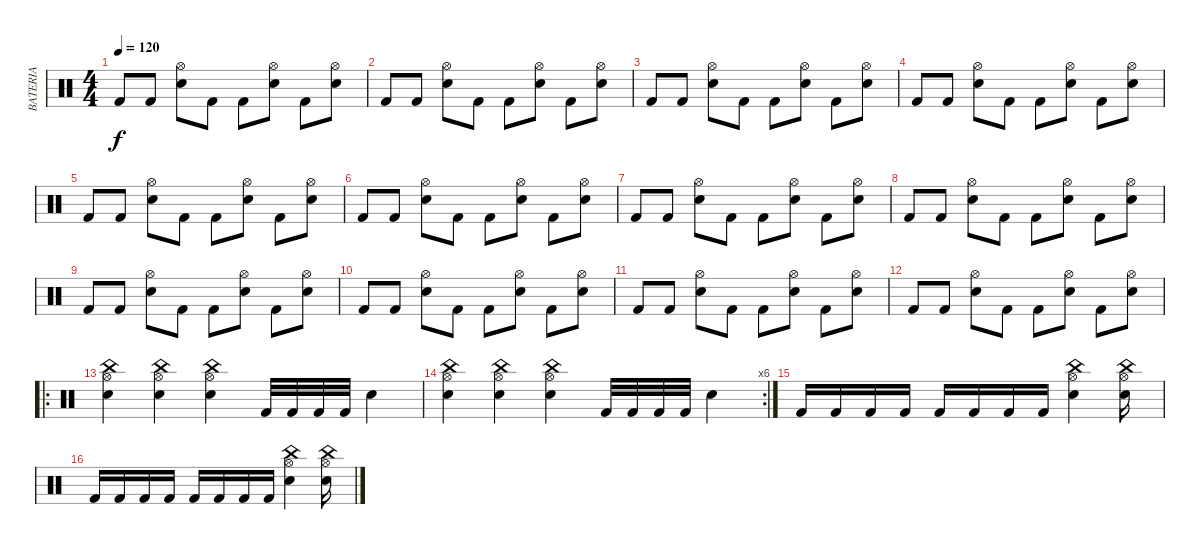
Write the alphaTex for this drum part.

\track ("BATERIA" "BATERIA") {instrument percussion}
\staff {score}
\articulation defaults
\ts (4 4)
\tempo 120
\clef neutral
\ks c "Kick (hit) 2".8{dy f} "Kick (hit) 2".8
("Snare (hit) 2" "Hi-Hat (open)").8 "Kick (hit) 2".8 "Kick (hit) 2".8 ("Snare (hit) 2" "Hi-Hat (open)").8 "Kick (hit) 2".8 ("Snare (hit) 2" "Hi-Hat (open)").8 |
"Kick (hit) 2".8 "Kick (hit) 2".8 ("Snare (hit) 2" "Hi-Hat (open)").8 "Kick (hit) 2".8 "Kick (hit) 2".8 ("Snare (hit) 2" "Hi-Hat (open)").8 "Kick (hit) 2".8 ("Snare (hit) 2" "Hi-Hat (open)").8 |
"Kick (hit) 2".8 "Kick (hit) 2".8 ("Snare (hit) 2" "Hi-Hat (open)").8 "Kick (hit) 2".8 "Kick (hit) 2".8 ("Snare (hit) 2" "Hi-Hat (open)").8 "Kick (hit) 2".8 ("Snare (hit) 2" "Hi-Hat (open)").8 |
"Kick (hit) 2".8 "Kick (hit) 2".8 ("Snare (hit) 2" "Hi-Hat (open)").8 "Kick (hit) 2".8 "Kick (hit) 2".8 ("Snare (hit) 2" "Hi-Hat (open)").8 "Kick (hit) 2".8 ("Snare (hit) 2" "Hi-Hat (open)").8 |
"Kick (hit) 2".8 "Kick (hit) 2".8 ("Snare (hit) 2" "Hi-Hat (open)").8 "Kick (hit) 2".8 "Kick (hit) 2".8 ("Snare (hit) 2" "Hi-Hat (open)").8 "Kick (hit) 2".8 ("Snare (hit) 2" "Hi-Hat (open)").8 |
"Kick (hit) 2".8 "Kick (hit) 2".8 ("Snare (hit) 2" "Hi-Hat (open)").8 "Kick (hit) 2".8 "Kick (hit) 2".8 ("Snare (hit) 2" "Hi-Hat (open)").8 "Kick (hit) 2".8 ("Snare (hit) 2" "Hi-Hat (open)").8 |
"Kick (hit) 2".8 "Kick (hit) 2".8 ("Snare (hit) 2" "Hi-Hat (open)").8 "Kick (hit) 2".8 "Kick (hit) 2".8 ("Snare (hit) 2" "Hi-Hat (open)").8 "Kick (hit) 2".8 ("Snare (hit) 2" "Hi-Hat (open)").8 |
"Kick (hit) 2".8 "Kick (hit) 2".8 ("Snare (hit) 2" "Hi-Hat (open)").8 "Kick (hit) 2".8 "Kick (hit) 2".8 ("Snare (hit) 2" "Hi-Hat (open)").8 "Kick (hit) 2".8 ("Snare (hit) 2" "Hi-Hat (open)").8 |
"Kick (hit) 2".8 "Kick (hit) 2".8 ("Snare (hit) 2" "Hi-Hat (open)").8 "Kick (hit) 2".8 "Kick (hit) 2".8 ("Snare (hit) 2" "Hi-Hat (open)").8 "Kick (hit) 2".8 ("Snare (hit) 2" "Hi-Hat (open)").8 |
"Kick (hit) 2".8 "Kick (hit) 2".8 ("Snare (hit) 2" "Hi-Hat (open)").8 "Kick (hit) 2".8 "Kick (hit) 2".8 ("Snare (hit) 2" "Hi-Hat (open)").8 "Kick (hit) 2".8 ("Snare (hit) 2" "Hi-Hat (open)").8 |
"Kick (hit) 2".8 "Kick (hit) 2".8 ("Snare (hit) 2" "Hi-Hat (open)").8 "Kick (hit) 2".8 "Kick (hit) 2".8 ("Snare (hit) 2" "Hi-Hat (open)").8 "Kick (hit) 2".8 ("Snare (hit) 2" "Hi-Hat (open)").8 |
"Kick (hit) 2".8 "Kick (hit) 2".8 ("Snare (hit) 2" "Hi-Hat (open)").8 "Kick (hit) 2".8 "Kick (hit) 2".8 ("Snare (hit) 2" "Hi-Hat (open)").8 "Kick (hit) 2".8 ("Snare (hit) 2" "Hi-Hat (open)").8 |
\ro
("Snare (hit) 2" "Hi-Hat (open)" "China (hit)").4 ("Snare (hit) 2" "China (hit)" "Hi-Hat (open)").4 ("Snare (hit) 2" "Hi-Hat (open)" "China (hit)").4 "Kick (hit) 2".32 "Kick (hit) 2".32 "Kick (hit) 2".32 "Kick (hit) 2".32 "Snare (hit) 2".4 |
\rc 6
("Snare (hit) 2" "Hi-Hat (open)" "China (hit)").4 ("Snare (hit) 2" "China (hit)" "Hi-Hat (open)").4 ("Snare (hit) 2" "Hi-Hat (open)" "China (hit)").4 "Kick (hit) 2".32 "Kick (hit) 2".32 "Kick (hit) 2".32 "Kick (hit) 2".32 "Snare (hit) 2".4 |
"Kick (hit) 2".16 "Kick (hit) 2".16 "Kick (hit) 2".16 "Kick (hit) 2".16 "Kick (hit) 2".16 "Kick (hit) 2".16 "Kick (hit) 2".16 "Kick (hit) 2".16 ("Snare (hit) 2" "Hi-Hat (open)" "China (hit)").4 ("Snare (hit) 2" "China (hit)" "Hi-Hat (open)").16 |
"Kick (hit) 2".16 "Kick (hit) 2".16 "Kick (hit) 2".16 "Kick (hit) 2".16 "Kick (hit) 2".16 "Kick (hit) 2".16 "Kick (hit) 2".16 "Kick (hit) 2".16 ("Snare (hit) 2" "Hi-Hat (open)" "China (hit)").4 ("Snare (hit) 2" "China (hit)" "Hi-Hat (open)").16
